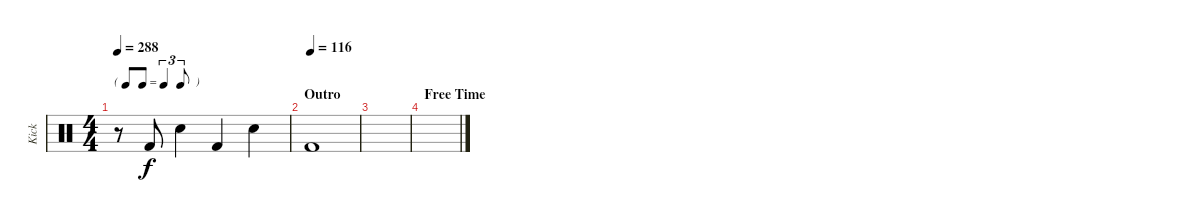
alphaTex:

\track ("Kick" "Kick") {instrument percussion}
\staff {score}
\articulation defaults
\ts (4 4)
\tf triplet8th
\tempo 288
\clef neutral
\ks c
r.8{dy f} "Kick (hit) 2".8 "Snare (hit) 2".4 "Kick (hit) 2".4 "Snare (hit) 2".4 |
\section ("" "Outro")
\tempo (116)
"Kick (hit) 2".1 |
|
\section ("" "Free Time")
